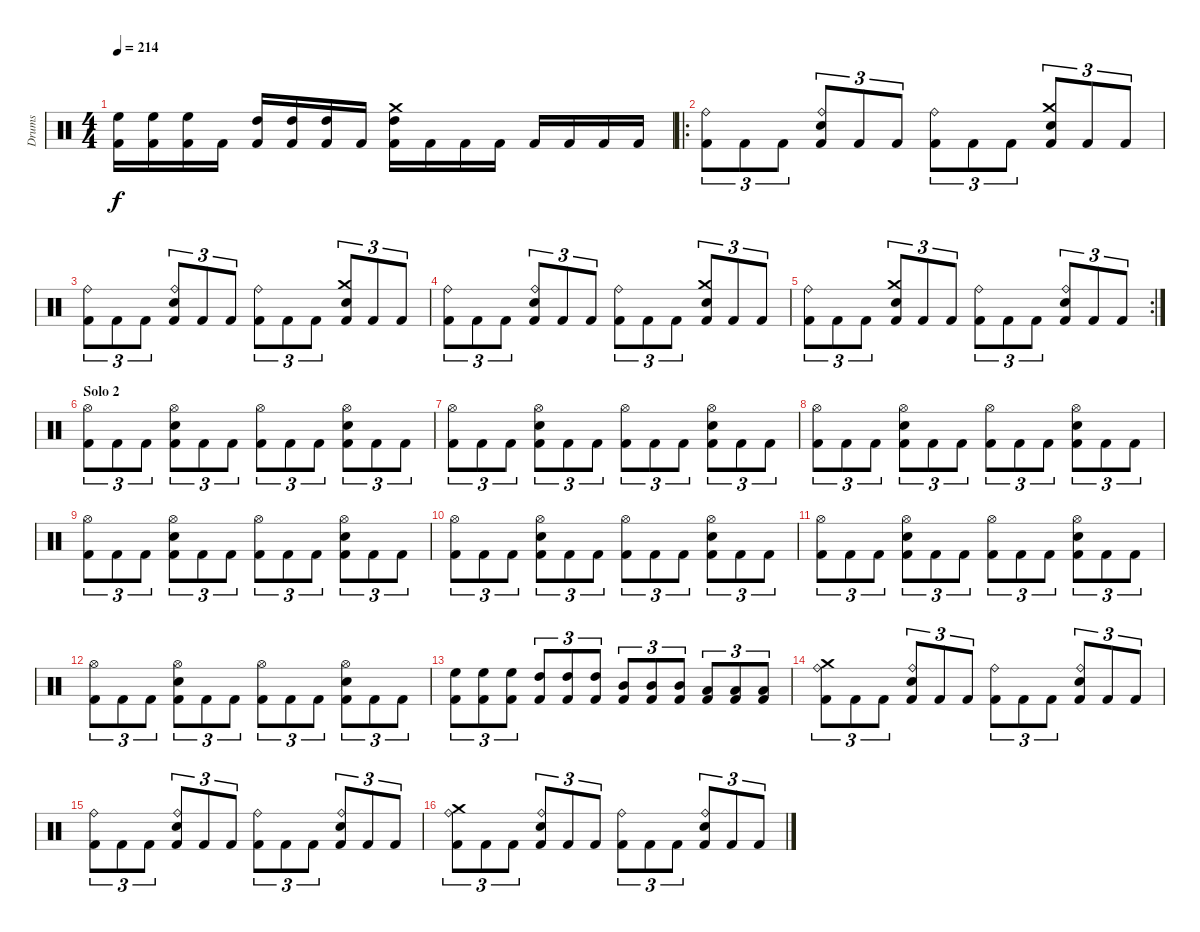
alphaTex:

\track ("Drums" "Drums") {instrument percussion}
\staff {score}
\articulation defaults
\ts (4 4)
\tempo 214
\clef neutral
\ks c
("Kick (hit) 2" "High Floor Tom (hit)").16{dy f} ("Kick (hit) 2" "High Floor Tom (hit)").16 ("Kick (hit) 2" "High Floor Tom (hit)").16 "Kick (hit) 2".16 ("Kick (hit) 2" "High Tom (hit)").16 ("Kick (hit) 2" "High Tom (hit)").16 ("Kick (hit) 2" "High Tom (hit)").16 "Kick (hit) 2".16 ("Kick (hit) 2" "High Tom (hit)" "Crash medium (hit)").16 "Kick (hit) 2".16 "Kick (hit) 2".16 "Kick (hit) 2".16 "Kick (hit) 2".16 "Kick (hit) 2".16 "Kick (hit) 2".16 "Kick (hit) 2".16 |
\ro
("Kick (hit) 2" "Ride (bell)").8{tu (3 2)} "Kick (hit) 2".8{tu (3 2)} "Kick (hit) 2".8{tu (3 2)} ("Kick (hit) 2" "Ride (bell)" "Snare (hit) 2").8{tu (3 2)} "Kick (hit) 2".8{tu (3 2)} "Kick (hit) 2".8{tu (3 2)} ("Kick (hit) 2" "Ride (bell)").8{tu (3 2)} "Kick (hit) 2".8{tu (3 2)} "Kick (hit) 2".8{tu (3 2)} ("Kick (hit) 2" "Crash medium (hit)" "Snare (hit) 2").8{tu (3 2)} "Kick (hit) 2".8{tu (3 2)} "Kick (hit) 2".8{tu (3 2)} |
("Kick (hit) 2" "Ride (bell)").8{tu (3 2)} "Kick (hit) 2".8{tu (3 2)} "Kick (hit) 2".8{tu (3 2)} ("Kick (hit) 2" "Ride (bell)" "Snare (hit) 2").8{tu (3 2)} "Kick (hit) 2".8{tu (3 2)} "Kick (hit) 2".8{tu (3 2)} ("Kick (hit) 2" "Ride (bell)").8{tu (3 2)} "Kick (hit) 2".8{tu (3 2)} "Kick (hit) 2".8{tu (3 2)} ("Kick (hit) 2" "Crash medium (hit)" "Snare (hit) 2").8{tu (3 2)} "Kick (hit) 2".8{tu (3 2)} "Kick (hit) 2".8{tu (3 2)} |
("Kick (hit) 2" "Ride (bell)").8{tu (3 2)} "Kick (hit) 2".8{tu (3 2)} "Kick (hit) 2".8{tu (3 2)} ("Kick (hit) 2" "Ride (bell)" "Snare (hit) 2").8{tu (3 2)} "Kick (hit) 2".8{tu (3 2)} "Kick (hit) 2".8{tu (3 2)} ("Kick (hit) 2" "Ride (bell)").8{tu (3 2)} "Kick (hit) 2".8{tu (3 2)} "Kick (hit) 2".8{tu (3 2)} ("Kick (hit) 2" "Crash medium (hit)" "Snare (hit) 2").8{tu (3 2)} "Kick (hit) 2".8{tu (3 2)} "Kick (hit) 2".8{tu (3 2)} |
\rc 2
("Kick (hit) 2" "Ride (bell)").8{tu (3 2)} "Kick (hit) 2".8{tu (3 2)} "Kick (hit) 2".8{tu (3 2)} ("Kick (hit) 2" "Crash medium (hit)" "Snare (hit) 2").8{tu (3 2)} "Kick (hit) 2".8{tu (3 2)} "Kick (hit) 2".8{tu (3 2)} ("Kick (hit) 2" "Ride (bell)").8{tu (3 2)} "Kick (hit) 2".8{tu (3 2)} "Kick (hit) 2".8{tu (3 2)} ("Kick (hit) 2" "Ride (bell)" "Snare (hit) 2").8{tu (3 2)} "Kick (hit) 2".8{tu (3 2)} "Kick (hit) 2".8{tu (3 2)} |
\section ("" "Solo 2")
("Kick (hit) 2" "Hi-Hat (open)").8{tu (3 2)} "Kick (hit) 2".8{tu (3 2)} "Kick (hit) 2".8{tu (3 2)} ("Kick (hit) 2" "Hi-Hat (open)" "Snare (hit) 2").8{tu (3 2)} "Kick (hit) 2".8{tu (3 2)} "Kick (hit) 2".8{tu (3 2)} ("Kick (hit) 2" "Hi-Hat (open)").8{tu (3 2)} "Kick (hit) 2".8{tu (3 2)} "Kick (hit) 2".8{tu (3 2)} ("Kick (hit) 2" "Hi-Hat (open)" "Snare (hit) 2").8{tu (3 2)} "Kick (hit) 2".8{tu (3 2)} "Kick (hit) 2".8{tu (3 2)} |
("Kick (hit) 2" "Hi-Hat (open)").8{tu (3 2)} "Kick (hit) 2".8{tu (3 2)} "Kick (hit) 2".8{tu (3 2)} ("Kick (hit) 2" "Hi-Hat (open)" "Snare (hit) 2").8{tu (3 2)} "Kick (hit) 2".8{tu (3 2)} "Kick (hit) 2".8{tu (3 2)} ("Kick (hit) 2" "Hi-Hat (open)").8{tu (3 2)} "Kick (hit) 2".8{tu (3 2)} "Kick (hit) 2".8{tu (3 2)} ("Kick (hit) 2" "Hi-Hat (open)" "Snare (hit) 2").8{tu (3 2)} "Kick (hit) 2".8{tu (3 2)} "Kick (hit) 2".8{tu (3 2)} |
("Kick (hit) 2" "Hi-Hat (open)").8{tu (3 2)} "Kick (hit) 2".8{tu (3 2)} "Kick (hit) 2".8{tu (3 2)} ("Kick (hit) 2" "Hi-Hat (open)" "Snare (hit) 2").8{tu (3 2)} "Kick (hit) 2".8{tu (3 2)} "Kick (hit) 2".8{tu (3 2)} ("Kick (hit) 2" "Hi-Hat (open)").8{tu (3 2)} "Kick (hit) 2".8{tu (3 2)} "Kick (hit) 2".8{tu (3 2)} ("Kick (hit) 2" "Hi-Hat (open)" "Snare (hit) 2").8{tu (3 2)} "Kick (hit) 2".8{tu (3 2)} "Kick (hit) 2".8{tu (3 2)} |
("Kick (hit) 2" "Hi-Hat (open)").8{tu (3 2)} "Kick (hit) 2".8{tu (3 2)} "Kick (hit) 2".8{tu (3 2)} ("Kick (hit) 2" "Hi-Hat (open)" "Snare (hit) 2").8{tu (3 2)} "Kick (hit) 2".8{tu (3 2)} "Kick (hit) 2".8{tu (3 2)} ("Kick (hit) 2" "Hi-Hat (open)").8{tu (3 2)} "Kick (hit) 2".8{tu (3 2)} "Kick (hit) 2".8{tu (3 2)} ("Kick (hit) 2" "Hi-Hat (open)" "Snare (hit) 2").8{tu (3 2)} "Kick (hit) 2".8{tu (3 2)} "Kick (hit) 2".8{tu (3 2)} |
("Kick (hit) 2" "Hi-Hat (open)").8{tu (3 2)} "Kick (hit) 2".8{tu (3 2)} "Kick (hit) 2".8{tu (3 2)} ("Kick (hit) 2" "Hi-Hat (open)" "Snare (hit) 2").8{tu (3 2)} "Kick (hit) 2".8{tu (3 2)} "Kick (hit) 2".8{tu (3 2)} ("Kick (hit) 2" "Hi-Hat (open)").8{tu (3 2)} "Kick (hit) 2".8{tu (3 2)} "Kick (hit) 2".8{tu (3 2)} ("Kick (hit) 2" "Hi-Hat (open)" "Snare (hit) 2").8{tu (3 2)} "Kick (hit) 2".8{tu (3 2)} "Kick (hit) 2".8{tu (3 2)} |
("Kick (hit) 2" "Hi-Hat (open)").8{tu (3 2)} "Kick (hit) 2".8{tu (3 2)} "Kick (hit) 2".8{tu (3 2)} ("Kick (hit) 2" "Hi-Hat (open)" "Snare (hit) 2").8{tu (3 2)} "Kick (hit) 2".8{tu (3 2)} "Kick (hit) 2".8{tu (3 2)} ("Kick (hit) 2" "Hi-Hat (open)").8{tu (3 2)} "Kick (hit) 2".8{tu (3 2)} "Kick (hit) 2".8{tu (3 2)} ("Kick (hit) 2" "Hi-Hat (open)" "Snare (hit) 2").8{tu (3 2)} "Kick (hit) 2".8{tu (3 2)} "Kick (hit) 2".8{tu (3 2)} |
("Kick (hit) 2" "Hi-Hat (open)").8{tu (3 2)} "Kick (hit) 2".8{tu (3 2)} "Kick (hit) 2".8{tu (3 2)} ("Kick (hit) 2" "Hi-Hat (open)" "Snare (hit) 2").8{tu (3 2)} "Kick (hit) 2".8{tu (3 2)} "Kick (hit) 2".8{tu (3 2)} ("Kick (hit) 2" "Hi-Hat (open)").8{tu (3 2)} "Kick (hit) 2".8{tu (3 2)} "Kick (hit) 2".8{tu (3 2)} ("Kick (hit) 2" "Hi-Hat (open)" "Snare (hit) 2").8{tu (3 2)} "Kick (hit) 2".8{tu (3 2)} "Kick (hit) 2".8{tu (3 2)} |
("Kick (hit) 2" "High Floor Tom (hit)").8{tu (3 2)} ("Kick (hit) 2" "High Floor Tom (hit)").8{tu (3 2)} ("Kick (hit) 2" "High Floor Tom (hit)").8{tu (3 2)} ("Kick (hit) 2" "High Tom (hit)").8{tu (3 2)} ("Kick (hit) 2" "High Tom (hit)").8{tu (3 2)} ("Kick (hit) 2" "High Tom (hit)").8{tu (3 2)} ("Kick (hit) 2" "Mid Tom (hit)").8{tu (3 2)} ("Kick (hit) 2" "Mid Tom (hit)").8{tu (3 2)} ("Kick (hit) 2" "Mid Tom (hit)").8{tu (3 2)} ("Kick (hit) 2" "Low Tom (hit)").8{tu (3 2)} ("Kick (hit) 2" "Low Tom (hit)").8{tu (3 2)} ("Kick (hit) 2" "Low Tom (hit)").8{tu (3 2)} |
("Kick (hit) 2" "Ride (bell)" "Crash medium (hit)").8{tu (3 2)} "Kick (hit) 2".8{tu (3 2)} "Kick (hit) 2".8{tu (3 2)} ("Kick (hit) 2" "Ride (bell)" "Snare (hit) 2").8{tu (3 2)} "Kick (hit) 2".8{tu (3 2)} "Kick (hit) 2".8{tu (3 2)} ("Kick (hit) 2" "Ride (bell)").8{tu (3 2)} "Kick (hit) 2".8{tu (3 2)} "Kick (hit) 2".8{tu (3 2)} ("Kick (hit) 2" "Ride (bell)" "Snare (hit) 2").8{tu (3 2)} "Kick (hit) 2".8{tu (3 2)} "Kick (hit) 2".8{tu (3 2)} |
("Kick (hit) 2" "Ride (bell)").8{tu (3 2)} "Kick (hit) 2".8{tu (3 2)} "Kick (hit) 2".8{tu (3 2)} ("Kick (hit) 2" "Ride (bell)" "Snare (hit) 2").8{tu (3 2)} "Kick (hit) 2".8{tu (3 2)} "Kick (hit) 2".8{tu (3 2)} ("Kick (hit) 2" "Ride (bell)").8{tu (3 2)} "Kick (hit) 2".8{tu (3 2)} "Kick (hit) 2".8{tu (3 2)} ("Kick (hit) 2" "Ride (bell)" "Snare (hit) 2").8{tu (3 2)} "Kick (hit) 2".8{tu (3 2)} "Kick (hit) 2".8{tu (3 2)} |
("Kick (hit) 2" "Ride (bell)" "Crash medium (hit)").8{tu (3 2)} "Kick (hit) 2".8{tu (3 2)} "Kick (hit) 2".8{tu (3 2)} ("Kick (hit) 2" "Ride (bell)" "Snare (hit) 2").8{tu (3 2)} "Kick (hit) 2".8{tu (3 2)} "Kick (hit) 2".8{tu (3 2)} ("Kick (hit) 2" "Ride (bell)").8{tu (3 2)} "Kick (hit) 2".8{tu (3 2)} "Kick (hit) 2".8{tu (3 2)} ("Kick (hit) 2" "Ride (bell)" "Snare (hit) 2").8{tu (3 2)} "Kick (hit) 2".8{tu (3 2)} "Kick (hit) 2".8{tu (3 2)}
